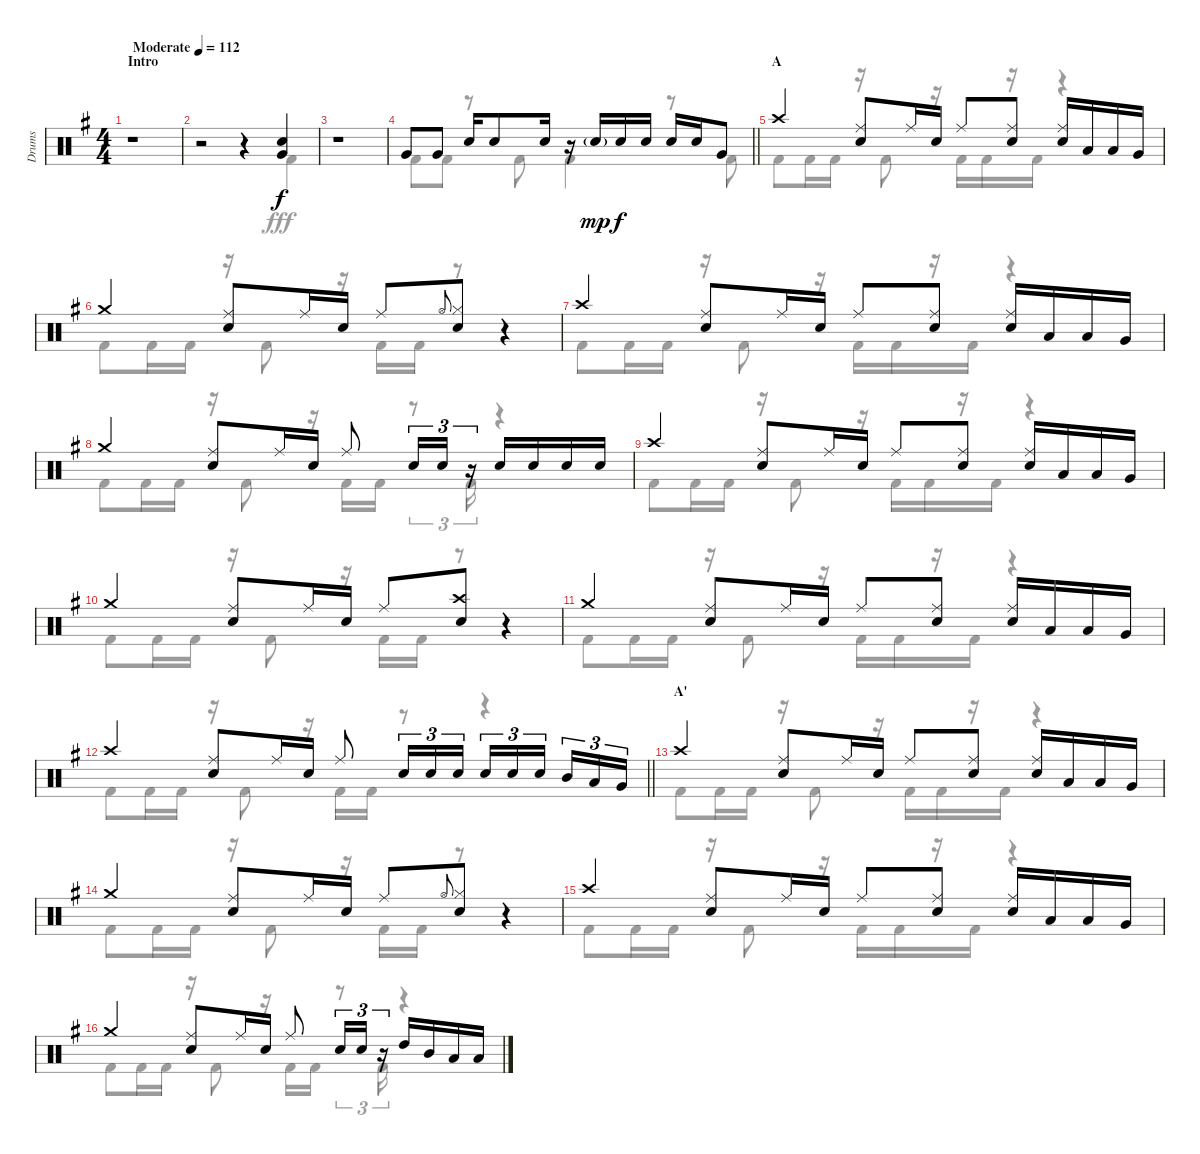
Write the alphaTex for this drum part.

\track ("Drums" "Drums") {instrument percussion}
\staff {score}
\articulation defaults
\voice
\ts (4 4)
\section ("" "Intro")
\tempo (112 "Moderate")
\clef neutral
\ks g
r.1{dy f} |
r.2 r.4 ("Snare (hit) 2" "Very Low Tom (hit)").4 |
r.1 |
\barLineRight lightlight "Very Low Tom (hit)".8 "Very Low Tom (hit)".8 "Snare (hit) 2".16 "Snare (hit) 2".8 "Snare (hit) 2".16
r.16 "Snare (hit) 2"{g}.16{dy mp} "Snare (hit) 2".16{dy f} "Snare (hit) 2".16 "Snare (hit) 2".16 "Snare (hit) 2".16 "Very Low Tom (hit)".8 |
\section ("" "A")
"Crash high (hit)".4 ("Ride (middle)" "Snare (hit) 2").8 "Ride (middle)".16 "Snare (hit) 2".16 "Ride (middle)".8 ("Ride (middle)" "Snare (hit) 2").8 ("Ride (middle)" "Snare (hit) 2").16 "Low Tom (hit)".16 "Low Tom (hit)".16 "Very Low Tom (hit)".16 |
"Crash medium (hit)".4 ("Ride (middle)" "Snare (hit) 2").8 "Ride (middle)".16 "Snare (hit) 2".16 "Ride (middle)".8 "Hi-Hat (open)".8{gr onbeat} ("Hi-Hat (closed)" "Snare (hit) 2").8 r.4 |
"Crash high (hit)".4 ("Ride (middle)" "Snare (hit) 2").8 "Ride (middle)".16 "Snare (hit) 2".16 "Ride (middle)".8 ("Ride (middle)" "Snare (hit) 2").8 ("Ride (middle)" "Snare (hit) 2").16 "Low Tom (hit)".16 "Low Tom (hit)".16 "Very Low Tom (hit)".16 |
"Crash medium (hit)".4 ("Ride (middle)" "Snare (hit) 2").8 "Ride (middle)".16 "Snare (hit) 2".16 "Ride (middle)".8 "Snare (hit) 2".16{tu (3 2)} "Snare (hit) 2".16{tu (3 2)} r.16{tu (3 2)} "Snare (hit) 2".16 "Snare (hit) 2".16 "Snare (hit) 2".16 "Snare (hit) 2".16 |
"Crash high (hit)".4 ("Ride (middle)" "Snare (hit) 2").8 "Ride (middle)".16 "Snare (hit) 2".16 "Ride (middle)".8 ("Ride (middle)" "Snare (hit) 2").8 ("Ride (middle)" "Snare (hit) 2").16 "Low Tom (hit)".16 "Low Tom (hit)".16 "Very Low Tom (hit)".16 |
"Crash medium (hit)".4 ("Ride (middle)" "Snare (hit) 2").8 "Ride (middle)".16 "Snare (hit) 2".16 "Ride (middle)".8 ("Crash high (hit)" "Snare (hit) 2").8 r.4 |
"Crash medium (hit)".4 ("Ride (middle)" "Snare (hit) 2").8 "Ride (middle)".16 "Snare (hit) 2".16 "Ride (middle)".8 ("Ride (middle)" "Snare (hit) 2").8 ("Ride (middle)" "Snare (hit) 2").16 "Low Tom (hit)".16 "Low Tom (hit)".16 "Very Low Tom (hit)".16 |
\barLineRight lightlight "Crash high (hit)".4
("Ride (middle)" "Snare (hit) 2").8 "Ride (middle)".16 "Snare (hit) 2".16 "Ride (middle)".8 "Snare (hit) 2".16{tu (3 2)} "Snare (hit) 2".16{tu (3 2)} "Snare (hit) 2".16{tu (3 2)} "Snare (hit) 2".16{tu (3 2)} "Snare (hit) 2".16{tu (3 2)} "Snare (hit) 2".16{tu (3 2) beam splitsecondary} "Mid Tom (hit)".16{tu (3 2)} "Low Tom (hit)".16{tu (3 2)} "Very Low Tom (hit)".16{tu (3 2)} |
\section ("" "A'")
"Crash high (hit)".4 ("Ride (middle)" "Snare (hit) 2").8 "Ride (middle)".16 "Snare (hit) 2".16 "Ride (middle)".8 ("Ride (middle)" "Snare (hit) 2").8 ("Ride (middle)" "Snare (hit) 2").16 "Low Tom (hit)".16 "Low Tom (hit)".16 "Very Low Tom (hit)".16 |
"Crash medium (hit)".4 ("Ride (middle)" "Snare (hit) 2").8 "Ride (middle)".16 "Snare (hit) 2".16 "Ride (middle)".8 "Hi-Hat (open)".8{gr onbeat} ("Hi-Hat (closed)" "Snare (hit) 2").8 r.4 |
"Crash high (hit)".4 ("Ride (middle)" "Snare (hit) 2").8 "Ride (middle)".16 "Snare (hit) 2".16 "Ride (middle)".8 ("Ride (middle)" "Snare (hit) 2").8 ("Ride (middle)" "Snare (hit) 2").16 "Low Tom (hit)".16 "Low Tom (hit)".16 "Very Low Tom (hit)".16 |
"Crash medium (hit)".4 ("Ride (middle)" "Snare (hit) 2").8 "Ride (middle)".16 "Snare (hit) 2".16 "Ride (middle)".8 "Snare (hit) 2".16{tu (3 2)} "Snare (hit) 2".16{tu (3 2)} r.16{tu (3 2)} "High Tom (hit)".16 "Mid Tom (hit)".16 "Low Tom (hit)".16 "Low Tom (hit)".16
\voice
\clef neutral
\ottava regular
\simile none
\ks g
r.1{dy fff} |
r.2 r.4 "Kick (hit) 2".4 |
r.1 |
\barLineRight lightlight "Kick (hit) 2".8 "Kick (hit) 2".8
r.8 "Kick (hit) 2".8 "Kick (hit) 2".4 r.8 "Kick (hit) 2".8 |
"Kick (hit) 2".8 "Kick (hit) 2".16 "Kick (hit) 2".16 r.16 "Kick (hit) 2".8 r.16 "Kick (hit) 2".16 "Kick (hit) 2".16 r.16 "Kick (hit) 2".16 r.4 |
"Kick (hit) 2".8 "Kick (hit) 2".16 "Kick (hit) 2".16 r.16 "Kick (hit) 2".8 r.16 "Kick (hit) 2".16 "Kick (hit) 2".16 r.8 r.4 |
"Kick (hit) 2".8 "Kick (hit) 2".16 "Kick (hit) 2".16 r.16 "Kick (hit) 2".8 r.16 "Kick (hit) 2".16 "Kick (hit) 2".16 r.16 "Kick (hit) 2".16 r.4 |
"Kick (hit) 2".8 "Kick (hit) 2".16 "Kick (hit) 2".16 r.16 "Kick (hit) 2".8 r.16 "Kick (hit) 2".16 "Kick (hit) 2".16 r.8{tu (3 2)} "Kick (hit) 2".16{tu (3 2)} r.4 |
"Kick (hit) 2".8 "Kick (hit) 2".16 "Kick (hit) 2".16 r.16 "Kick (hit) 2".8 r.16 "Kick (hit) 2".16 "Kick (hit) 2".16 r.16 "Kick (hit) 2".16 r.4 |
"Kick (hit) 2".8 "Kick (hit) 2".16 "Kick (hit) 2".16 r.16 "Kick (hit) 2".8 r.16 "Kick (hit) 2".16 "Kick (hit) 2".16 r.8 r.4 |
"Kick (hit) 2".8 "Kick (hit) 2".16 "Kick (hit) 2".16 r.16 "Kick (hit) 2".8 r.16 "Kick (hit) 2".16 "Kick (hit) 2".16 r.16 "Kick (hit) 2".16 r.4 |
\barLineRight lightlight "Kick (hit) 2".8 "Kick (hit) 2".16 "Kick (hit) 2".16
r.16 "Kick (hit) 2".8 r.16 "Kick (hit) 2".16 "Kick (hit) 2".16 r.8 r.4 |
"Kick (hit) 2".8 "Kick (hit) 2".16 "Kick (hit) 2".16 r.16 "Kick (hit) 2".8 r.16 "Kick (hit) 2".16 "Kick (hit) 2".16 r.16 "Kick (hit) 2".16 r.4 |
"Kick (hit) 2".8 "Kick (hit) 2".16 "Kick (hit) 2".16 r.16 "Kick (hit) 2".8 r.16 "Kick (hit) 2".16 "Kick (hit) 2".16 r.8 r.4 |
"Kick (hit) 2".8 "Kick (hit) 2".16 "Kick (hit) 2".16 r.16 "Kick (hit) 2".8 r.16 "Kick (hit) 2".16 "Kick (hit) 2".16 r.16 "Kick (hit) 2".16 r.4 |
"Kick (hit) 2".8 "Kick (hit) 2".16 "Kick (hit) 2".16 r.16 "Kick (hit) 2".8 r.16 "Kick (hit) 2".16 "Kick (hit) 2".16 r.8{tu (3 2)} "Kick (hit) 2".16{tu (3 2)} r.4
